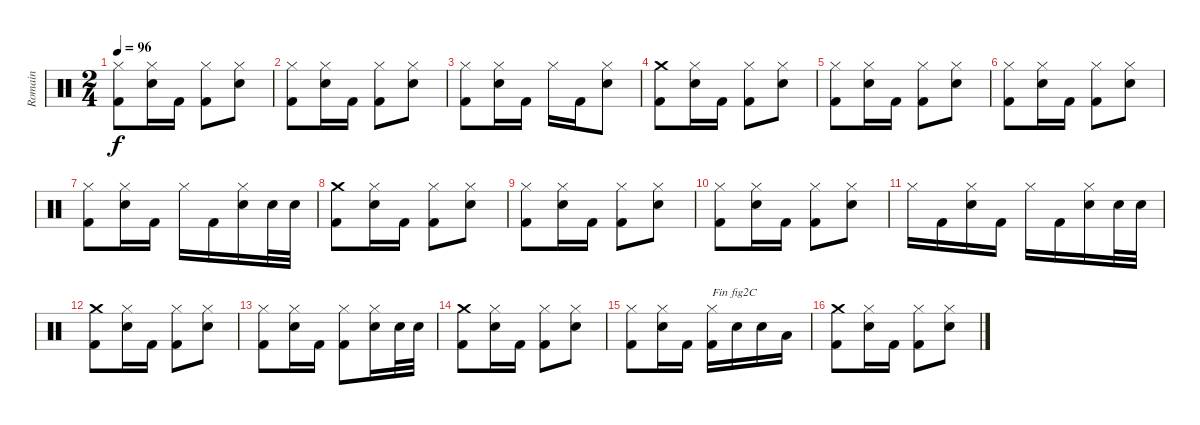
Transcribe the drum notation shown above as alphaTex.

\track ("Romain" "Romain") {instrument percussion}
\staff {score}
\articulation defaults
\ts (2 4)
\tempo 96
\clef neutral
\ks c
("Kick (hit) 2" "Hi-Hat (closed)").8{dy f} ("Electric Snare (hit)" "Hi-Hat (closed)").16 "Kick (hit) 2".16 ("Kick (hit) 2" "Hi-Hat (closed)").8 ("Electric Snare (hit)" "Hi-Hat (closed)").8 |
("Kick (hit) 2" "Hi-Hat (closed)").8 ("Electric Snare (hit)" "Hi-Hat (closed)").16 "Kick (hit) 2".16 ("Kick (hit) 2" "Hi-Hat (closed)").8 ("Electric Snare (hit)" "Hi-Hat (closed)").8 |
("Kick (hit) 2" "Hi-Hat (closed)").8 ("Electric Snare (hit)" "Hi-Hat (closed)").16 "Kick (hit) 2".16 "Hi-Hat (closed)".16 "Kick (hit) 2".16 ("Electric Snare (hit)" "Hi-Hat (closed)").8 |
("Kick (hit) 2" "Crash medium (hit)").8 ("Electric Snare (hit)" "Hi-Hat (closed)").16 "Kick (hit) 2".16 ("Kick (hit) 2" "Hi-Hat (closed)").8 ("Electric Snare (hit)" "Hi-Hat (closed)").8 |
("Kick (hit) 2" "Hi-Hat (closed)").8 ("Electric Snare (hit)" "Hi-Hat (closed)").16 "Kick (hit) 2".16 ("Kick (hit) 2" "Hi-Hat (closed)").8 ("Electric Snare (hit)" "Hi-Hat (closed)").8 |
("Kick (hit) 2" "Hi-Hat (closed)").8 ("Electric Snare (hit)" "Hi-Hat (closed)").16 "Kick (hit) 2".16 ("Kick (hit) 2" "Hi-Hat (closed)").8 ("Electric Snare (hit)" "Hi-Hat (closed)").8 |
("Kick (hit) 2" "Hi-Hat (closed)").8 ("Electric Snare (hit)" "Hi-Hat (closed)").16 "Kick (hit) 2".16 "Hi-Hat (closed)".16 "Kick (hit) 2".16 ("Electric Snare (hit)" "Hi-Hat (closed)").16 "Electric Snare (hit)".32 "Electric Snare (hit)".32 |
("Kick (hit) 2" "Crash medium (hit)").8 ("Electric Snare (hit)" "Hi-Hat (closed)").16 "Kick (hit) 2".16 ("Kick (hit) 2" "Hi-Hat (closed)").8 ("Electric Snare (hit)" "Hi-Hat (closed)").8 |
("Kick (hit) 2" "Hi-Hat (closed)").8 ("Electric Snare (hit)" "Hi-Hat (closed)").16 "Kick (hit) 2".16 ("Kick (hit) 2" "Hi-Hat (closed)").8 ("Electric Snare (hit)" "Hi-Hat (closed)").8 |
("Kick (hit) 2" "Hi-Hat (closed)").8 ("Electric Snare (hit)" "Hi-Hat (closed)").16 "Kick (hit) 2".16 ("Kick (hit) 2" "Hi-Hat (closed)").8 ("Electric Snare (hit)" "Hi-Hat (closed)").8 |
"Hi-Hat (closed)".16 "Kick (hit) 2".16 ("Electric Snare (hit)" "Hi-Hat (closed)").16 "Kick (hit) 2".16 "Hi-Hat (closed)".16 "Kick (hit) 2".16 ("Electric Snare (hit)" "Hi-Hat (closed)").16 "Electric Snare (hit)".32 "Electric Snare (hit)".32 |
("Kick (hit) 2" "Crash medium (hit)").8 ("Electric Snare (hit)" "Hi-Hat (closed)").16 "Kick (hit) 2".16 ("Kick (hit) 2" "Hi-Hat (closed)").8 ("Electric Snare (hit)" "Hi-Hat (closed)").8 |
("Kick (hit) 2" "Hi-Hat (closed)").8 ("Electric Snare (hit)" "Hi-Hat (closed)").16 "Kick (hit) 2".16 ("Kick (hit) 2" "Hi-Hat (closed)").8 ("Electric Snare (hit)" "Hi-Hat (closed)").16 "Electric Snare (hit)".32 "Electric Snare (hit)".32 |
("Kick (hit) 2" "Crash medium (hit)").8 ("Electric Snare (hit)" "Hi-Hat (closed)").16 "Kick (hit) 2".16 ("Kick (hit) 2" "Hi-Hat (closed)").8 ("Electric Snare (hit)" "Hi-Hat (closed)").8 |
("Kick (hit) 2" "Hi-Hat (closed)").8 ("Electric Snare (hit)" "Hi-Hat (closed)").16 "Kick (hit) 2".16 ("Kick (hit) 2" "Hi-Hat (closed)").16{txt "Fin fig2C"} "Electric Snare (hit)".16 "Electric Snare (hit)".16 "Low Tom (hit)".16 |
("Kick (hit) 2" "Crash medium (hit)").8 ("Electric Snare (hit)" "Hi-Hat (closed)").16 "Kick (hit) 2".16 ("Kick (hit) 2" "Hi-Hat (closed)").8 ("Electric Snare (hit)" "Hi-Hat (closed)").8
